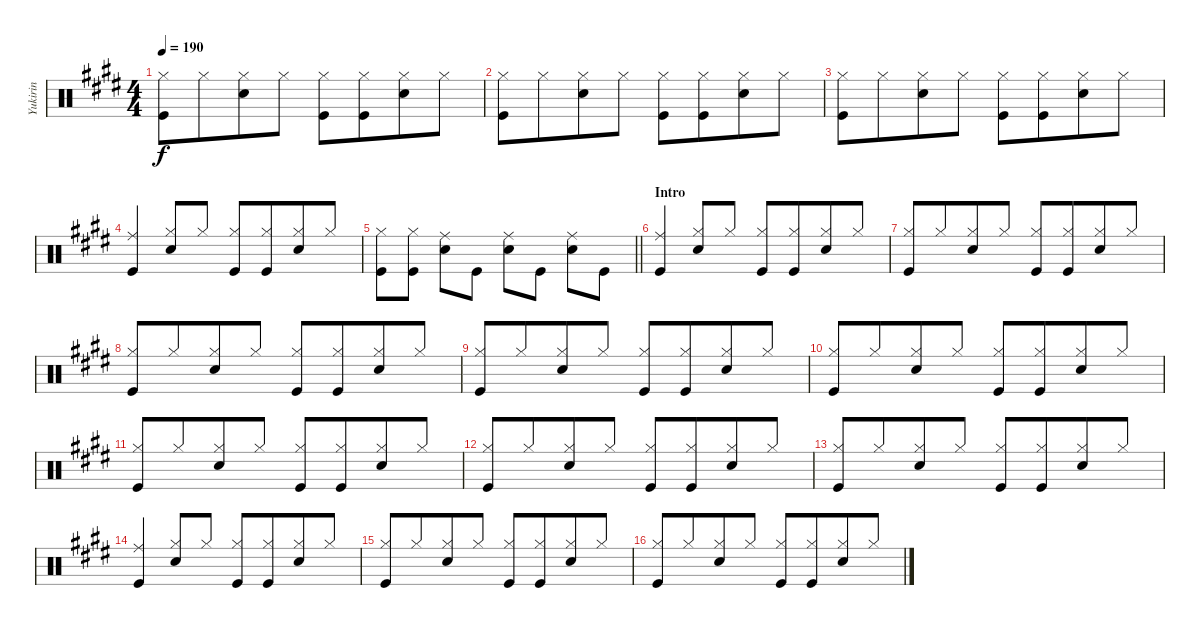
\track ("Yukirin" "Yukirin") {mute instrument percussion}
\staff {score}
\articulation defaults
\ts (4 4)
\tempo 190
\clef neutral
\ks e
("Hi-Hat (closed)" "Kick (hit)").8{dy f} "Hi-Hat (closed)".8{beam merge} ("Hi-Hat (closed)" "Snare (hit) 2").8 "Hi-Hat (closed)".8 ("Hi-Hat (closed)" "Kick (hit)").8 ("Hi-Hat (closed)" "Kick (hit)").8{beam merge} ("Hi-Hat (closed)" "Snare (hit) 2").8 "Hi-Hat (closed)".8 |
("Hi-Hat (closed)" "Kick (hit)").8 "Hi-Hat (closed)".8{beam merge} ("Hi-Hat (closed)" "Snare (hit) 2").8 "Hi-Hat (closed)".8 ("Hi-Hat (closed)" "Kick (hit)").8 ("Hi-Hat (closed)" "Kick (hit)").8{beam merge} ("Hi-Hat (closed)" "Snare (hit) 2").8 "Hi-Hat (closed)".8 |
("Hi-Hat (closed)" "Kick (hit)").8 "Hi-Hat (closed)".8{beam merge} ("Hi-Hat (closed)" "Snare (hit) 2").8 "Hi-Hat (closed)".8 ("Hi-Hat (closed)" "Kick (hit)").8 ("Hi-Hat (closed)" "Kick (hit)").8{beam merge} ("Hi-Hat (closed)" "Snare (hit) 2").8 "Hi-Hat (closed)".8 |
("Ride (middle)" "Kick (hit)").4{beam Up} ("Hi-Hat (closed)" "Snare (hit) 2").8{beam Up} "Hi-Hat (closed)".8{beam Up} ("Hi-Hat (closed)" "Kick (hit)").8{beam Up} ("Hi-Hat (closed)" "Kick (hit)").8{beam Up beam merge} ("Hi-Hat (closed)" "Snare (hit) 2").8{beam Up} "Hi-Hat (closed)".8{beam Up} |
\barLineRight lightlight
("Hi-Hat (closed)" "Kick (hit)").8 ("Hi-Hat (closed)" "Kick (hit)").8 ("Ride (middle)" "Snare (hit) 2").8 "Kick (hit)".8 ("Ride (middle)" "Snare (hit) 2").8 "Kick (hit)".8 ("Ride (middle)" "Snare (hit) 2").8 "Kick (hit)".8 |
\section ("" "Intro")
("Ride (middle)" "Kick (hit)").4{beam Up} ("Hi-Hat (closed)" "Snare (hit) 2").8{beam Up} "Hi-Hat (closed)".8{beam Up} ("Hi-Hat (closed)" "Kick (hit)").8{beam Up} ("Hi-Hat (closed)" "Kick (hit)").8{beam Up beam merge} ("Hi-Hat (closed)" "Snare (hit) 2").8{beam Up} "Hi-Hat (closed)".8{beam Up} |
("Hi-Hat (closed)" "Kick (hit)").8{beam Up} "Hi-Hat (closed)".8{beam Up beam merge} ("Hi-Hat (closed)" "Snare (hit) 2").8{beam Up} "Hi-Hat (closed)".8{beam Up} ("Hi-Hat (closed)" "Kick (hit)").8{beam Up} ("Hi-Hat (closed)" "Kick (hit)").8{beam Up beam merge} ("Hi-Hat (closed)" "Snare (hit) 2").8{beam Up} "Hi-Hat (closed)".8{beam Up} |
("Hi-Hat (closed)" "Kick (hit)").8{beam Up} "Hi-Hat (closed)".8{beam Up beam merge} ("Hi-Hat (closed)" "Snare (hit) 2").8{beam Up} "Hi-Hat (closed)".8{beam Up} ("Hi-Hat (closed)" "Kick (hit)").8{beam Up} ("Hi-Hat (closed)" "Kick (hit)").8{beam Up beam merge} ("Hi-Hat (closed)" "Snare (hit) 2").8{beam Up} "Hi-Hat (closed)".8{beam Up} |
("Hi-Hat (closed)" "Kick (hit)").8{beam Up} "Hi-Hat (closed)".8{beam Up beam merge} ("Hi-Hat (closed)" "Snare (hit) 2").8{beam Up} "Hi-Hat (closed)".8{beam Up} ("Hi-Hat (closed)" "Kick (hit)").8{beam Up} ("Hi-Hat (closed)" "Kick (hit)").8{beam Up beam merge} ("Hi-Hat (closed)" "Snare (hit) 2").8{beam Up} "Hi-Hat (closed)".8{beam Up} |
("Hi-Hat (closed)" "Kick (hit)").8{beam Up} "Hi-Hat (closed)".8{beam Up beam merge} ("Hi-Hat (closed)" "Snare (hit) 2").8{beam Up} "Hi-Hat (closed)".8{beam Up} ("Hi-Hat (closed)" "Kick (hit)").8{beam Up} ("Hi-Hat (closed)" "Kick (hit)").8{beam Up beam merge} ("Hi-Hat (closed)" "Snare (hit) 2").8{beam Up} "Hi-Hat (closed)".8{beam Up} |
("Hi-Hat (closed)" "Kick (hit)").8{beam Up} "Hi-Hat (closed)".8{beam Up beam merge} ("Hi-Hat (closed)" "Snare (hit) 2").8{beam Up} "Hi-Hat (closed)".8{beam Up} ("Hi-Hat (closed)" "Kick (hit)").8{beam Up} ("Hi-Hat (closed)" "Kick (hit)").8{beam Up beam merge} ("Hi-Hat (closed)" "Snare (hit) 2").8{beam Up} "Hi-Hat (closed)".8{beam Up} |
("Hi-Hat (closed)" "Kick (hit)").8{beam Up} "Hi-Hat (closed)".8{beam Up beam merge} ("Hi-Hat (closed)" "Snare (hit) 2").8{beam Up} "Hi-Hat (closed)".8{beam Up} ("Hi-Hat (closed)" "Kick (hit)").8{beam Up} ("Hi-Hat (closed)" "Kick (hit)").8{beam Up beam merge} ("Hi-Hat (closed)" "Snare (hit) 2").8{beam Up} "Hi-Hat (closed)".8{beam Up} |
("Hi-Hat (closed)" "Kick (hit)").8{beam Up} "Hi-Hat (closed)".8{beam Up beam merge} ("Hi-Hat (closed)" "Snare (hit) 2").8{beam Up} "Hi-Hat (closed)".8{beam Up} ("Hi-Hat (closed)" "Kick (hit)").8{beam Up} ("Hi-Hat (closed)" "Kick (hit)").8{beam Up beam merge} ("Hi-Hat (closed)" "Snare (hit) 2").8{beam Up} "Hi-Hat (closed)".8{beam Up} |
("Ride (middle)" "Kick (hit)").4{beam Up} ("Hi-Hat (closed)" "Snare (hit) 2").8{beam Up} "Hi-Hat (closed)".8{beam Up} ("Hi-Hat (closed)" "Kick (hit)").8{beam Up} ("Hi-Hat (closed)" "Kick (hit)").8{beam Up beam merge} ("Hi-Hat (closed)" "Snare (hit) 2").8{beam Up} "Hi-Hat (closed)".8{beam Up} |
("Hi-Hat (closed)" "Kick (hit)").8{beam Up} "Hi-Hat (closed)".8{beam Up beam merge} ("Hi-Hat (closed)" "Snare (hit) 2").8{beam Up} "Hi-Hat (closed)".8{beam Up} ("Hi-Hat (closed)" "Kick (hit)").8{beam Up} ("Hi-Hat (closed)" "Kick (hit)").8{beam Up beam merge} ("Hi-Hat (closed)" "Snare (hit) 2").8{beam Up} "Hi-Hat (closed)".8{beam Up} |
("Hi-Hat (closed)" "Kick (hit)").8{beam Up} "Hi-Hat (closed)".8{beam Up beam merge} ("Hi-Hat (closed)" "Snare (hit) 2").8{beam Up} "Hi-Hat (closed)".8{beam Up} ("Hi-Hat (closed)" "Kick (hit)").8{beam Up} ("Hi-Hat (closed)" "Kick (hit)").8{beam Up beam merge} ("Hi-Hat (closed)" "Snare (hit) 2").8{beam Up} "Hi-Hat (closed)".8{beam Up}
